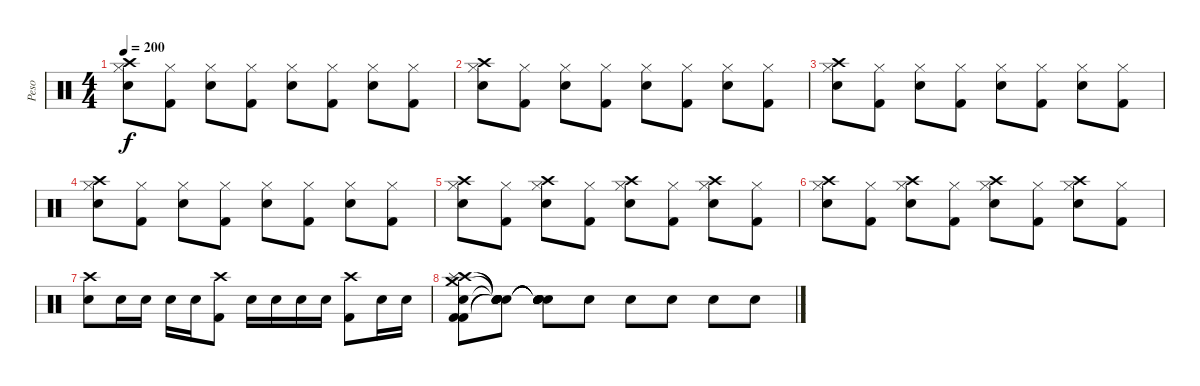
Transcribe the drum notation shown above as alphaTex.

\track ("Peso" "Peso") {instrument percussion}
\staff {score}
\articulation defaults
\ts (4 4)
\tempo 200
\clef neutral
\ks c
("Crash high (hit)" "Hi-Hat (closed)" "Snare (hit) 2").8{dy f} ("Hi-Hat (closed)" "Kick (hit) 2").8 ("Hi-Hat (closed)" "Snare (hit) 2").8 ("Hi-Hat (closed)" "Kick (hit) 2").8 ("Hi-Hat (closed)" "Snare (hit) 2").8 ("Hi-Hat (closed)" "Kick (hit) 2").8 ("Hi-Hat (closed)" "Snare (hit) 2").8 ("Hi-Hat (closed)" "Kick (hit) 2").8 |
("Crash high (hit)" "Hi-Hat (closed)" "Snare (hit) 2").8 ("Hi-Hat (closed)" "Kick (hit) 2").8 ("Hi-Hat (closed)" "Snare (hit) 2").8 ("Hi-Hat (closed)" "Kick (hit) 2").8 ("Hi-Hat (closed)" "Snare (hit) 2").8 ("Hi-Hat (closed)" "Kick (hit) 2").8 ("Hi-Hat (closed)" "Snare (hit) 2").8 ("Hi-Hat (closed)" "Kick (hit) 2").8 |
("Crash high (hit)" "Hi-Hat (closed)" "Snare (hit) 2").8 ("Hi-Hat (closed)" "Kick (hit) 2").8 ("Hi-Hat (closed)" "Snare (hit) 2").8 ("Hi-Hat (closed)" "Kick (hit) 2").8 ("Hi-Hat (closed)" "Snare (hit) 2").8 ("Hi-Hat (closed)" "Kick (hit) 2").8 ("Hi-Hat (closed)" "Snare (hit) 2").8 ("Hi-Hat (closed)" "Kick (hit) 2").8 |
("Crash high (hit)" "Hi-Hat (closed)" "Snare (hit) 2").8 ("Hi-Hat (closed)" "Kick (hit) 2").8 ("Hi-Hat (closed)" "Snare (hit) 2").8 ("Hi-Hat (closed)" "Kick (hit) 2").8 ("Hi-Hat (closed)" "Snare (hit) 2").8 ("Hi-Hat (closed)" "Kick (hit) 2").8 ("Hi-Hat (closed)" "Snare (hit) 2").8 ("Hi-Hat (closed)" "Kick (hit) 2").8 |
("Crash high (hit)" "Hi-Hat (closed)" "Snare (hit) 2").8 ("Hi-Hat (closed)" "Kick (hit) 2").8 ("Crash high (hit)" "Hi-Hat (closed)" "Snare (hit) 2").8 ("Hi-Hat (closed)" "Kick (hit) 2").8 ("Crash high (hit)" "Hi-Hat (closed)" "Snare (hit) 2").8 ("Hi-Hat (closed)" "Kick (hit) 2").8 ("Crash high (hit)" "Hi-Hat (closed)" "Snare (hit) 2").8 ("Hi-Hat (closed)" "Kick (hit) 2").8 |
("Crash high (hit)" "Hi-Hat (closed)" "Snare (hit) 2").8 ("Hi-Hat (closed)" "Kick (hit) 2").8 ("Crash high (hit)" "Hi-Hat (closed)" "Snare (hit) 2").8 ("Hi-Hat (closed)" "Kick (hit) 2").8 ("Crash high (hit)" "Hi-Hat (closed)" "Snare (hit) 2").8 ("Hi-Hat (closed)" "Kick (hit) 2").8 ("Crash high (hit)" "Hi-Hat (closed)" "Snare (hit) 2").8 ("Hi-Hat (closed)" "Kick (hit) 2").8 |
("Crash high (hit)" "Snare (hit) 2").8 "Snare (hit) 2".16 "Snare (hit) 2".16 "Snare (hit) 2".16 "Snare (hit) 2".16 ("Crash high (hit)" "Kick (hit) 2").8 "Snare (hit) 2".16 "Snare (hit) 2".16 "Snare (hit) 2".16 "Snare (hit) 2".16 ("Crash high (hit)" "Kick (hit) 2").8 "Snare (hit) 2".16 "Snare (hit) 2".16 |
("Snare (hit) 2" "Kick (hit) 2" "Crash high (hit)" "Crash medium (hit)" "Splash (hit)" "Kick (hit) 2").8 ("Snare (hit)"{t} "Snare (hit)"{t} "Snare (hit)"{t} "Snare (hit)"{t} "Snare (hit)"{t} "Snare (hit)"{t}).8 ("Snare (hit)"{t} "Snare (hit)"{t} "Snare (hit)"{t} "Snare (hit)"{t} "Snare (hit)"{t} "Snare (hit)"{t}).8 "Snare (hit)"{x}.8 "Snare (hit)"{x}.8 "Snare (hit)"{x}.8 "Snare (hit)"{x}.8 "Snare (hit)"{x}.8
